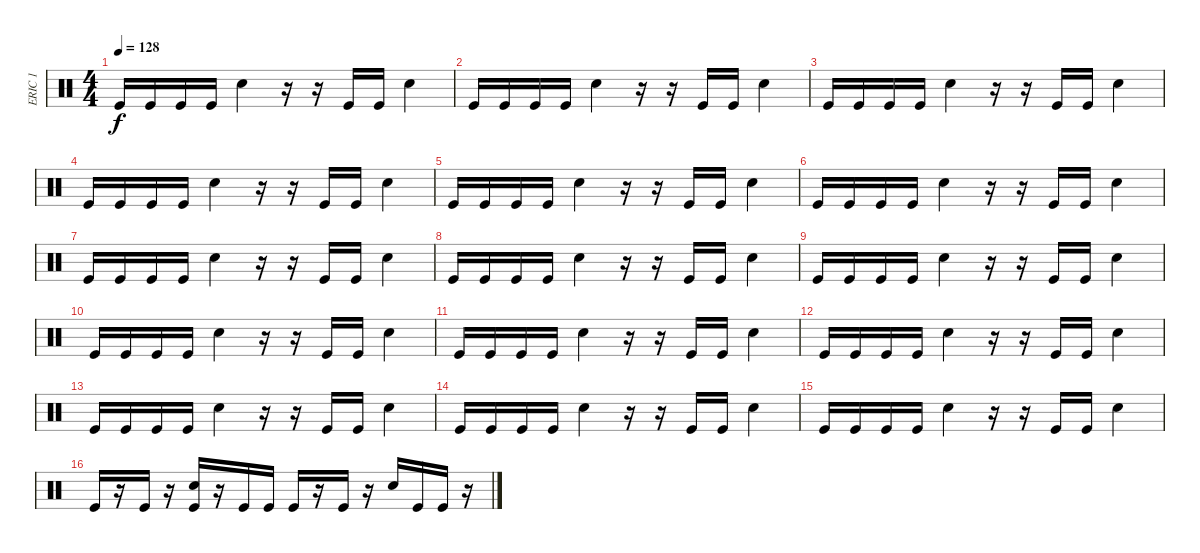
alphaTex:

\track ("ERIC 1" "ERIC 1") {instrument percussion}
\staff {score}
\articulation defaults
\ts (4 4)
\tempo 128
\clef neutral
\ks c "Kick (hit)".16{dy f} "Kick (hit)".16 "Kick (hit)".16 "Kick (hit)".16 "Electric Snare (hit)".4
r.16 r.16 "Kick (hit)".16 "Kick (hit)".16 "Electric Snare (hit)".4 |
"Kick (hit)".16 "Kick (hit)".16 "Kick (hit)".16 "Kick (hit)".16 "Electric Snare (hit)".4 r.16 r.16 "Kick (hit)".16 "Kick (hit)".16 "Electric Snare (hit)".4 |
"Kick (hit)".16 "Kick (hit)".16 "Kick (hit)".16 "Kick (hit)".16 "Electric Snare (hit)".4 r.16 r.16 "Kick (hit)".16 "Kick (hit)".16 "Electric Snare (hit)".4 |
"Kick (hit)".16 "Kick (hit)".16 "Kick (hit)".16 "Kick (hit)".16 "Electric Snare (hit)".4 r.16 r.16 "Kick (hit)".16 "Kick (hit)".16 "Electric Snare (hit)".4 |
"Kick (hit)".16 "Kick (hit)".16 "Kick (hit)".16 "Kick (hit)".16 "Electric Snare (hit)".4 r.16 r.16 "Kick (hit)".16 "Kick (hit)".16 "Electric Snare (hit)".4 |
"Kick (hit)".16 "Kick (hit)".16 "Kick (hit)".16 "Kick (hit)".16 "Electric Snare (hit)".4 r.16 r.16 "Kick (hit)".16 "Kick (hit)".16 "Electric Snare (hit)".4 |
"Kick (hit)".16 "Kick (hit)".16 "Kick (hit)".16 "Kick (hit)".16 "Electric Snare (hit)".4 r.16 r.16 "Kick (hit)".16 "Kick (hit)".16 "Electric Snare (hit)".4 |
"Kick (hit)".16 "Kick (hit)".16 "Kick (hit)".16 "Kick (hit)".16 "Electric Snare (hit)".4 r.16 r.16 "Kick (hit)".16 "Kick (hit)".16 "Electric Snare (hit)".4 |
"Kick (hit)".16 "Kick (hit)".16 "Kick (hit)".16 "Kick (hit)".16 "Electric Snare (hit)".4 r.16 r.16 "Kick (hit)".16 "Kick (hit)".16 "Electric Snare (hit)".4 |
"Kick (hit)".16 "Kick (hit)".16 "Kick (hit)".16 "Kick (hit)".16 "Electric Snare (hit)".4 r.16 r.16 "Kick (hit)".16 "Kick (hit)".16 "Electric Snare (hit)".4 |
"Kick (hit)".16 "Kick (hit)".16 "Kick (hit)".16 "Kick (hit)".16 "Electric Snare (hit)".4 r.16 r.16 "Kick (hit)".16 "Kick (hit)".16 "Electric Snare (hit)".4 |
"Kick (hit)".16 "Kick (hit)".16 "Kick (hit)".16 "Kick (hit)".16 "Electric Snare (hit)".4 r.16 r.16 "Kick (hit)".16 "Kick (hit)".16 "Electric Snare (hit)".4 |
"Kick (hit)".16 "Kick (hit)".16 "Kick (hit)".16 "Kick (hit)".16 "Electric Snare (hit)".4 r.16 r.16 "Kick (hit)".16 "Kick (hit)".16 "Electric Snare (hit)".4 |
"Kick (hit)".16 "Kick (hit)".16 "Kick (hit)".16 "Kick (hit)".16 "Electric Snare (hit)".4 r.16 r.16 "Kick (hit)".16 "Kick (hit)".16 "Electric Snare (hit)".4 |
"Kick (hit)".16 "Kick (hit)".16 "Kick (hit)".16 "Kick (hit)".16 "Electric Snare (hit)".4 r.16 r.16 "Kick (hit)".16 "Kick (hit)".16 "Electric Snare (hit)".4 |
"Kick (hit)".16 r.16 "Kick (hit)".16 r.16 ("Electric Snare (hit)" "Kick (hit)").16 r.16 "Kick (hit)".16 "Kick (hit)".16 "Kick (hit)".16 r.16 "Kick (hit)".16 r.16 "Electric Snare (hit)".16 "Kick (hit)".16 "Kick (hit)".16 r.16
